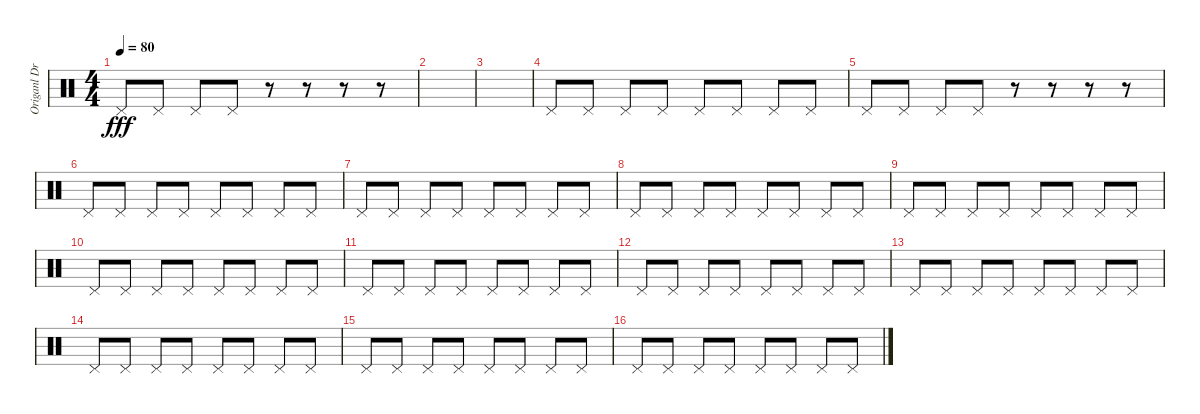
\track ("Origanl Drum Track" "Origanl Dr") {instrument percussion}
\staff {score}
\articulation defaults
\ts (4 4)
\tempo 80
\clef neutral
\ks c "Pedal Hi-Hat (hit)".8{dy fff} "Pedal Hi-Hat (hit)".8 "Pedal Hi-Hat (hit)".8 "Pedal Hi-Hat (hit)".8
r.8 r.8 r.8 r.8 |
|
|
"Pedal Hi-Hat (hit)".8 "Pedal Hi-Hat (hit)".8 "Pedal Hi-Hat (hit)".8 "Pedal Hi-Hat (hit)".8 "Pedal Hi-Hat (hit)".8 "Pedal Hi-Hat (hit)".8 "Pedal Hi-Hat (hit)".8 "Pedal Hi-Hat (hit)".8 |
"Pedal Hi-Hat (hit)".8 "Pedal Hi-Hat (hit)".8 "Pedal Hi-Hat (hit)".8 "Pedal Hi-Hat (hit)".8 r.8 r.8 r.8 r.8 |
"Pedal Hi-Hat (hit)".8 "Pedal Hi-Hat (hit)".8 "Pedal Hi-Hat (hit)".8 "Pedal Hi-Hat (hit)".8 "Pedal Hi-Hat (hit)".8 "Pedal Hi-Hat (hit)".8 "Pedal Hi-Hat (hit)".8 "Pedal Hi-Hat (hit)".8 |
"Pedal Hi-Hat (hit)".8 "Pedal Hi-Hat (hit)".8 "Pedal Hi-Hat (hit)".8 "Pedal Hi-Hat (hit)".8 "Pedal Hi-Hat (hit)".8 "Pedal Hi-Hat (hit)".8 "Pedal Hi-Hat (hit)".8 "Pedal Hi-Hat (hit)".8 |
"Pedal Hi-Hat (hit)".8 "Pedal Hi-Hat (hit)".8 "Pedal Hi-Hat (hit)".8 "Pedal Hi-Hat (hit)".8 "Pedal Hi-Hat (hit)".8 "Pedal Hi-Hat (hit)".8 "Pedal Hi-Hat (hit)".8 "Pedal Hi-Hat (hit)".8 |
"Pedal Hi-Hat (hit)".8 "Pedal Hi-Hat (hit)".8 "Pedal Hi-Hat (hit)".8 "Pedal Hi-Hat (hit)".8 "Pedal Hi-Hat (hit)".8 "Pedal Hi-Hat (hit)".8 "Pedal Hi-Hat (hit)".8 "Pedal Hi-Hat (hit)".8 |
"Pedal Hi-Hat (hit)".8 "Pedal Hi-Hat (hit)".8 "Pedal Hi-Hat (hit)".8 "Pedal Hi-Hat (hit)".8 "Pedal Hi-Hat (hit)".8 "Pedal Hi-Hat (hit)".8 "Pedal Hi-Hat (hit)".8 "Pedal Hi-Hat (hit)".8 |
"Pedal Hi-Hat (hit)".8 "Pedal Hi-Hat (hit)".8 "Pedal Hi-Hat (hit)".8 "Pedal Hi-Hat (hit)".8 "Pedal Hi-Hat (hit)".8 "Pedal Hi-Hat (hit)".8 "Pedal Hi-Hat (hit)".8 "Pedal Hi-Hat (hit)".8 |
"Pedal Hi-Hat (hit)".8 "Pedal Hi-Hat (hit)".8 "Pedal Hi-Hat (hit)".8 "Pedal Hi-Hat (hit)".8 "Pedal Hi-Hat (hit)".8 "Pedal Hi-Hat (hit)".8 "Pedal Hi-Hat (hit)".8 "Pedal Hi-Hat (hit)".8 |
"Pedal Hi-Hat (hit)".8 "Pedal Hi-Hat (hit)".8 "Pedal Hi-Hat (hit)".8 "Pedal Hi-Hat (hit)".8 "Pedal Hi-Hat (hit)".8 "Pedal Hi-Hat (hit)".8 "Pedal Hi-Hat (hit)".8 "Pedal Hi-Hat (hit)".8 |
"Pedal Hi-Hat (hit)".8 "Pedal Hi-Hat (hit)".8 "Pedal Hi-Hat (hit)".8 "Pedal Hi-Hat (hit)".8 "Pedal Hi-Hat (hit)".8 "Pedal Hi-Hat (hit)".8 "Pedal Hi-Hat (hit)".8 "Pedal Hi-Hat (hit)".8 |
"Pedal Hi-Hat (hit)".8 "Pedal Hi-Hat (hit)".8 "Pedal Hi-Hat (hit)".8 "Pedal Hi-Hat (hit)".8 "Pedal Hi-Hat (hit)".8 "Pedal Hi-Hat (hit)".8 "Pedal Hi-Hat (hit)".8 "Pedal Hi-Hat (hit)".8 |
"Pedal Hi-Hat (hit)".8 "Pedal Hi-Hat (hit)".8 "Pedal Hi-Hat (hit)".8 "Pedal Hi-Hat (hit)".8 "Pedal Hi-Hat (hit)".8 "Pedal Hi-Hat (hit)".8 "Pedal Hi-Hat (hit)".8 "Pedal Hi-Hat (hit)".8
